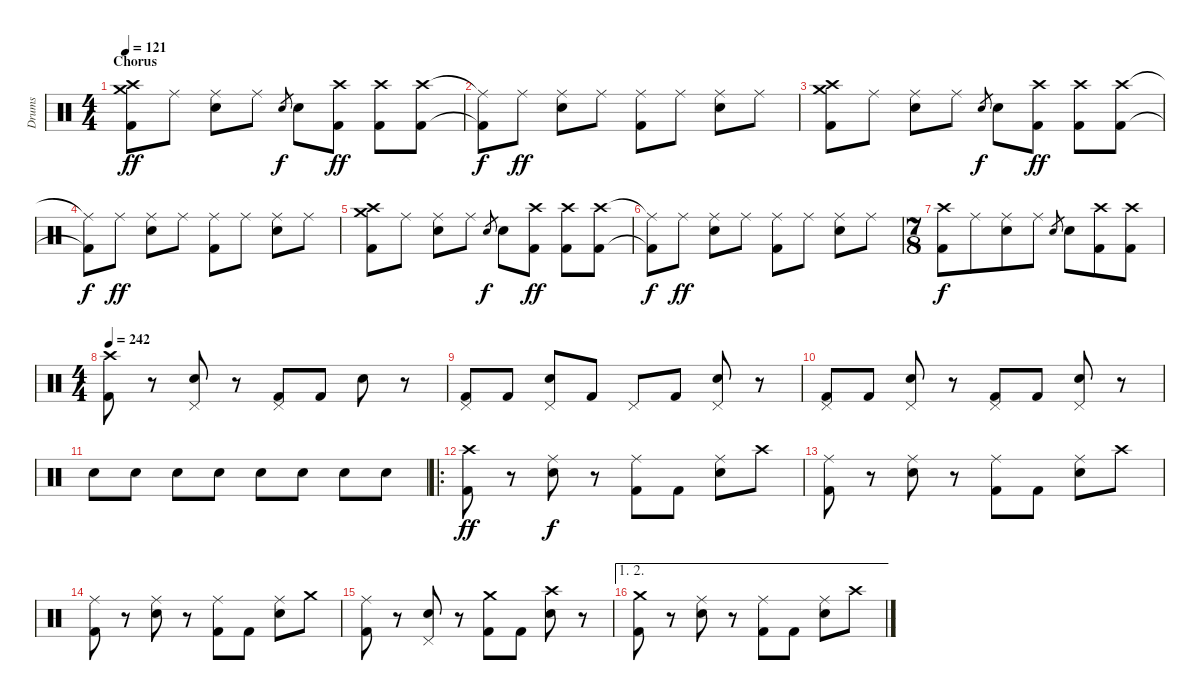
\track ("Drums" "Drums") {instrument percussion}
\staff {score}
\articulation defaults
\ts (4 4)
\section ("" "Chorus")
\tempo 121
\clef neutral
\ks c
("Crash high (hit)" "Crash medium (hit)" "Kick (hit) 2").8{dy ff} "Ride (middle)".8 ("Ride (middle)" "Electric Snare (hit)").8 "Ride (middle)".8 "Electric Snare (hit)".8{gr dy f} "Electric Snare (hit)".8 ("Crash high (hit)" "Kick (hit) 2").8{dy ff} ("Crash high (hit)" "Kick (hit) 2").8 ("Crash high (hit)" "Kick (hit) 2").8 |
("Ride (middle)"{t} "Kick (hit) 2"{t}).8{dy f} "Ride (middle)".8{dy ff} ("Ride (middle)" "Electric Snare (hit)").8 "Ride (middle)".8 ("Ride (middle)" "Kick (hit) 2").8 "Ride (middle)".8 ("Ride (middle)" "Electric Snare (hit)").8 "Ride (middle)".8 |
("Crash high (hit)" "Crash medium (hit)" "Kick (hit) 2").8 "Ride (middle)".8 ("Ride (middle)" "Electric Snare (hit)").8 "Ride (middle)".8 "Electric Snare (hit)".8{gr dy f} "Electric Snare (hit)".8 ("Crash high (hit)" "Kick (hit) 2").8{dy ff} ("Crash high (hit)" "Kick (hit) 2").8 ("Crash high (hit)" "Kick (hit) 2").8 |
("Ride (middle)"{t} "Kick (hit) 2"{t}).8{dy f} "Ride (middle)".8{dy ff} ("Ride (middle)" "Electric Snare (hit)").8 "Ride (middle)".8 ("Ride (middle)" "Kick (hit) 2").8 "Ride (middle)".8 ("Ride (middle)" "Electric Snare (hit)").8 "Ride (middle)".8 |
("Crash high (hit)" "Crash medium (hit)" "Kick (hit) 2").8 "Ride (middle)".8 ("Ride (middle)" "Electric Snare (hit)").8 "Ride (middle)".8 "Electric Snare (hit)".8{gr dy f} "Electric Snare (hit)".8 ("Crash high (hit)" "Kick (hit) 2").8{dy ff} ("Crash high (hit)" "Kick (hit) 2").8 ("Crash high (hit)" "Kick (hit) 2").8 |
("Ride (middle)"{t} "Kick (hit) 2"{t}).8{dy f} "Ride (middle)".8{dy ff} ("Ride (middle)" "Electric Snare (hit)").8 "Ride (middle)".8 ("Ride (middle)" "Kick (hit) 2").8 "Ride (middle)".8 ("Ride (middle)" "Electric Snare (hit)").8 "Ride (middle)".8 |
\ts (7 8)
("Crash high (hit)" "Kick (hit) 2").8{dy f} "Ride (middle)".8 ("Ride (middle)" "Electric Snare (hit)").8 "Ride (middle)".8 "Electric Snare (hit)".8{gr} "Electric Snare (hit)".8 ("Crash high (hit)" "Kick (hit) 2").8 ("Crash high (hit)" "Kick (hit) 2").8 |
\ts (4 4)
\tempo 242
("Crash high (hit)" "Kick (hit) 2").8 r.8 ("Pedal Hi-Hat (hit)" "Electric Snare (hit)").8 r.8 ("Pedal Hi-Hat (hit)" "Kick (hit) 2").8 "Kick (hit) 2".8 "Electric Snare (hit)".8 r.8 |
("Pedal Hi-Hat (hit)" "Kick (hit) 2").8 "Kick (hit) 2".8 ("Pedal Hi-Hat (hit)" "Electric Snare (hit)").8 "Kick (hit) 2".8 "Pedal Hi-Hat (hit)".8 "Kick (hit) 2".8 ("Pedal Hi-Hat (hit)" "Electric Snare (hit)").8 r.8 |
("Pedal Hi-Hat (hit)" "Kick (hit) 2").8 "Kick (hit) 2".8 ("Pedal Hi-Hat (hit)" "Electric Snare (hit)").8 r.8 ("Pedal Hi-Hat (hit)" "Kick (hit) 2").8 "Kick (hit) 2".8 ("Pedal Hi-Hat (hit)" "Electric Snare (hit)").8 r.8 |
"Electric Snare (hit)".8 "Electric Snare (hit)".8 "Electric Snare (hit)".8 "Electric Snare (hit)".8 "Electric Snare (hit)".8 "Electric Snare (hit)".8 "Electric Snare (hit)".8 "Electric Snare (hit)".8 |
\ro
("Crash high (hit)" "Kick (hit) 2").8{dy ff} r.8 ("Ride (middle)" "Electric Snare (hit)").8{dy f} r.8 ("Ride (middle)" "Kick (hit) 2").8 "Kick (hit) 2".8 ("Ride (middle)" "Electric Snare (hit)").8 "Crash high (hit)".8 |
("Ride (middle)" "Kick (hit) 2").8 r.8 ("Ride (middle)" "Electric Snare (hit)").8 r.8 ("Ride (middle)" "Kick (hit) 2").8 "Kick (hit) 2".8 ("Ride (middle)" "Electric Snare (hit)").8 "Crash high (hit)".8 |
("Ride (middle)" "Kick (hit) 2").8 r.8 ("Ride (middle)" "Electric Snare (hit)").8 r.8 ("Ride (middle)" "Kick (hit) 2").8 "Kick (hit) 2".8 ("Ride (middle)" "Electric Snare (hit)").8 "Crash medium (hit)".8 |
("Ride (middle)" "Kick (hit) 2").8 r.8 ("Pedal Hi-Hat (hit)" "Electric Snare (hit)").8 r.8 ("Crash medium (hit)" "Kick (hit) 2").8 "Kick (hit) 2".8 ("Crash high (hit)" "Electric Snare (hit)").8 r.8 |
\ae (1 2)
("Crash medium (hit)" "Kick (hit) 2").8 r.8 ("Ride (middle)" "Electric Snare (hit)").8 r.8 ("Ride (middle)" "Kick (hit) 2").8 "Kick (hit) 2".8 ("Ride (middle)" "Electric Snare (hit)").8 "Crash high (hit)".8
